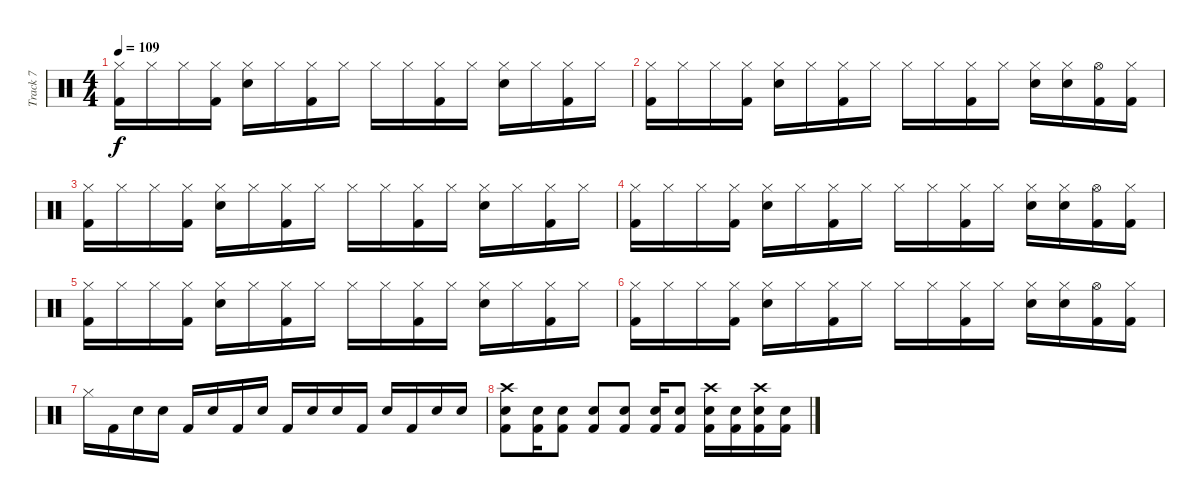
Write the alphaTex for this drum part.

\track ("Track 7" "Track 7") {instrument percussion}
\staff {score}
\articulation defaults
\ts (4 4)
\tempo 109
\clef neutral
\ks c
("Hi-Hat (closed)" "Kick (hit) 2").16{dy f} "Hi-Hat (closed)".16 "Hi-Hat (closed)".16 ("Hi-Hat (closed)" "Kick (hit) 2").16 ("Hi-Hat (closed)" "Snare (hit) 2").16 "Hi-Hat (closed)".16 ("Hi-Hat (closed)" "Kick (hit) 2").16 "Hi-Hat (closed)".16 "Hi-Hat (closed)".16 "Hi-Hat (closed)".16 ("Hi-Hat (closed)" "Kick (hit) 2").16 "Hi-Hat (closed)".16 ("Hi-Hat (closed)" "Snare (hit) 2").16 "Hi-Hat (closed)".16 ("Hi-Hat (closed)" "Kick (hit) 2").16 "Hi-Hat (closed)".16 |
("Hi-Hat (closed)" "Kick (hit) 2").16 "Hi-Hat (closed)".16 "Hi-Hat (closed)".16 ("Hi-Hat (closed)" "Kick (hit) 2").16 ("Hi-Hat (closed)" "Snare (hit) 2").16 "Hi-Hat (closed)".16 ("Hi-Hat (closed)" "Kick (hit) 2").16 "Hi-Hat (closed)".16 "Hi-Hat (closed)".16 "Hi-Hat (closed)".16 ("Hi-Hat (closed)" "Kick (hit) 2").16 "Hi-Hat (closed)".16 ("Hi-Hat (closed)" "Snare (hit) 2").16 ("Hi-Hat (closed)" "Snare (hit) 2").16 ("Hi-Hat (open)" "Kick (hit) 2").16 ("Hi-Hat (closed)" "Kick (hit) 2").16 |
("Hi-Hat (closed)" "Kick (hit) 2").16 "Hi-Hat (closed)".16 "Hi-Hat (closed)".16 ("Hi-Hat (closed)" "Kick (hit) 2").16 ("Hi-Hat (closed)" "Snare (hit) 2").16 "Hi-Hat (closed)".16 ("Hi-Hat (closed)" "Kick (hit) 2").16 "Hi-Hat (closed)".16 "Hi-Hat (closed)".16 "Hi-Hat (closed)".16 ("Hi-Hat (closed)" "Kick (hit) 2").16 "Hi-Hat (closed)".16 ("Hi-Hat (closed)" "Snare (hit) 2").16 "Hi-Hat (closed)".16 ("Hi-Hat (closed)" "Kick (hit) 2").16 "Hi-Hat (closed)".16 |
("Hi-Hat (closed)" "Kick (hit) 2").16 "Hi-Hat (closed)".16 "Hi-Hat (closed)".16 ("Hi-Hat (closed)" "Kick (hit) 2").16 ("Hi-Hat (closed)" "Snare (hit) 2").16 "Hi-Hat (closed)".16 ("Hi-Hat (closed)" "Kick (hit) 2").16 "Hi-Hat (closed)".16 "Hi-Hat (closed)".16 "Hi-Hat (closed)".16 ("Hi-Hat (closed)" "Kick (hit) 2").16 "Hi-Hat (closed)".16 ("Hi-Hat (closed)" "Snare (hit) 2").16 ("Hi-Hat (closed)" "Snare (hit) 2").16 ("Hi-Hat (open)" "Kick (hit) 2").16 ("Hi-Hat (closed)" "Kick (hit) 2").16 |
("Hi-Hat (closed)" "Kick (hit) 2").16 "Hi-Hat (closed)".16 "Hi-Hat (closed)".16 ("Hi-Hat (closed)" "Kick (hit) 2").16 ("Hi-Hat (closed)" "Snare (hit) 2").16 "Hi-Hat (closed)".16 ("Hi-Hat (closed)" "Kick (hit) 2").16 "Hi-Hat (closed)".16 "Hi-Hat (closed)".16 "Hi-Hat (closed)".16 ("Hi-Hat (closed)" "Kick (hit) 2").16 "Hi-Hat (closed)".16 ("Hi-Hat (closed)" "Snare (hit) 2").16 "Hi-Hat (closed)".16 ("Hi-Hat (closed)" "Kick (hit) 2").16 "Hi-Hat (closed)".16 |
("Hi-Hat (closed)" "Kick (hit) 2").16 "Hi-Hat (closed)".16 "Hi-Hat (closed)".16 ("Hi-Hat (closed)" "Kick (hit) 2").16 ("Hi-Hat (closed)" "Snare (hit) 2").16 "Hi-Hat (closed)".16 ("Hi-Hat (closed)" "Kick (hit) 2").16 "Hi-Hat (closed)".16 "Hi-Hat (closed)".16 "Hi-Hat (closed)".16 ("Hi-Hat (closed)" "Kick (hit) 2").16 "Hi-Hat (closed)".16 ("Hi-Hat (closed)" "Snare (hit) 2").16 ("Hi-Hat (closed)" "Snare (hit) 2").16 ("Hi-Hat (open)" "Kick (hit) 2").16 ("Hi-Hat (closed)" "Kick (hit) 2").16 |
"Hi-Hat (closed)".16 "Kick (hit) 2".16 "Snare (hit) 2".16 "Snare (hit) 2".16 "Kick (hit) 2".16 "Snare (hit) 2".16 "Kick (hit) 2".16 "Snare (hit) 2".16 "Kick (hit) 2".16 "Snare (hit) 2".16 "Snare (hit) 2".16 "Kick (hit) 2".16 "Snare (hit) 2".16 "Kick (hit) 2".16 "Snare (hit) 2".16 "Snare (hit) 2".16 |
("Crash high (hit)" "Snare (hit) 2" "Kick (hit) 2").8 ("Snare (hit) 2" "Kick (hit) 2").16 ("Snare (hit) 2" "Kick (hit) 2").8 ("Snare (hit) 2" "Kick (hit) 2").8 ("Snare (hit) 2" "Kick (hit) 2").8 ("Snare (hit) 2" "Kick (hit) 2").16 ("Snare (hit) 2" "Kick (hit) 2").8 ("Crash high (hit)" "Snare (hit) 2" "Kick (hit) 2").16 ("Snare (hit) 2" "Kick (hit) 2").16 ("Crash high (hit)" "Snare (hit) 2" "Kick (hit) 2").16 ("Snare (hit) 2" "Kick (hit) 2").16
